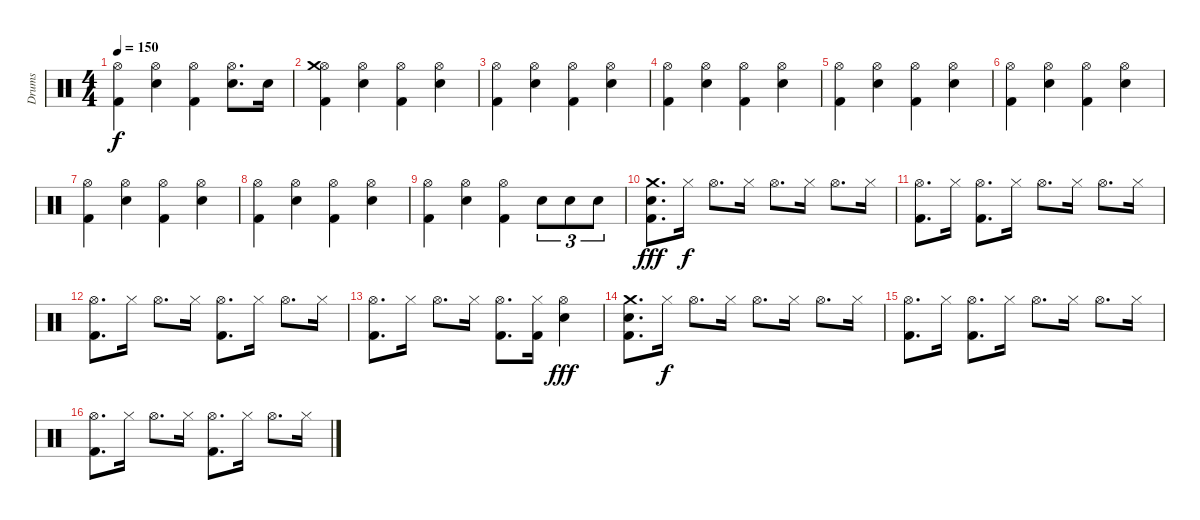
\track ("Drums" "Drums") {instrument percussion}
\staff {score}
\articulation defaults
\ts (4 4)
\tempo 150
\clef neutral
\ks c
("Hi-Hat (open)" "Kick (hit) 2").4{dy f} ("Hi-Hat (open)" "Snare (hit) 2").4 ("Hi-Hat (open)" "Kick (hit) 2").4 ("Hi-Hat (open)" "Snare (hit) 2").8{d} "Snare (hit) 2".16 |
("Hi-Hat (open)" "Crash medium (hit)" "Kick (hit) 2").4 ("Hi-Hat (open)" "Snare (hit) 2").4 ("Hi-Hat (open)" "Kick (hit) 2").4 ("Hi-Hat (open)" "Snare (hit) 2").4 |
("Hi-Hat (open)" "Kick (hit) 2").4 ("Hi-Hat (open)" "Snare (hit) 2").4 ("Hi-Hat (open)" "Kick (hit) 2").4 ("Hi-Hat (open)" "Snare (hit) 2").4 |
("Hi-Hat (open)" "Kick (hit) 2").4 ("Hi-Hat (open)" "Snare (hit) 2").4 ("Hi-Hat (open)" "Kick (hit) 2").4 ("Hi-Hat (open)" "Snare (hit) 2").4 |
("Hi-Hat (open)" "Kick (hit) 2").4 ("Hi-Hat (open)" "Snare (hit) 2").4 ("Hi-Hat (open)" "Kick (hit) 2").4 ("Hi-Hat (open)" "Snare (hit) 2").4 |
("Hi-Hat (open)" "Kick (hit) 2").4 ("Hi-Hat (open)" "Snare (hit) 2").4 ("Hi-Hat (open)" "Kick (hit) 2").4 ("Hi-Hat (open)" "Snare (hit) 2").4 |
("Hi-Hat (open)" "Kick (hit) 2").4 ("Hi-Hat (open)" "Snare (hit) 2").4 ("Hi-Hat (open)" "Kick (hit) 2").4 ("Hi-Hat (open)" "Snare (hit) 2").4 |
("Hi-Hat (open)" "Kick (hit) 2").4 ("Hi-Hat (open)" "Snare (hit) 2").4 ("Hi-Hat (open)" "Kick (hit) 2").4 ("Hi-Hat (open)" "Snare (hit) 2").4 |
("Hi-Hat (open)" "Kick (hit) 2").4 ("Hi-Hat (open)" "Snare (hit) 2").4 ("Hi-Hat (open)" "Kick (hit) 2").4 "Snare (hit) 2".8{tu (3 2)} "Snare (hit) 2".8{tu (3 2)} "Snare (hit) 2".8{tu (3 2)} |
("Crash medium (hit)" "Snare (hit) 2" "Kick (hit) 2").8{d dy fff volume 9} "Hi-Hat (closed)".16{dy f} "Hi-Hat (open)".8{d} "Hi-Hat (closed)".16 "Hi-Hat (open)".8{d} "Hi-Hat (closed)".16 "Hi-Hat (open)".8{d} "Hi-Hat (closed)".16 |
("Hi-Hat (open)" "Kick (hit) 2").8{d volume 9} "Hi-Hat (closed)".16 ("Hi-Hat (open)" "Kick (hit) 2").8{d} "Hi-Hat (closed)".16 "Hi-Hat (open)".8{d} "Hi-Hat (closed)".16 "Hi-Hat (open)".8{d} "Hi-Hat (closed)".16 |
("Hi-Hat (open)" "Kick (hit) 2").8{d volume 9} "Hi-Hat (closed)".16 "Hi-Hat (open)".8{d} "Hi-Hat (closed)".16 ("Hi-Hat (open)" "Kick (hit) 2").8{d} "Hi-Hat (closed)".16 "Hi-Hat (open)".8{d} "Hi-Hat (closed)".16 |
("Hi-Hat (open)" "Kick (hit) 2").8{d volume 9} "Hi-Hat (closed)".16 "Hi-Hat (open)".8{d} "Hi-Hat (closed)".16 ("Hi-Hat (open)" "Kick (hit) 2").8{d} ("Hi-Hat (closed)" "Kick (hit) 2").16 ("Hi-Hat (open)" "Snare (hit) 2").4{dy fff} |
("Crash medium (hit)" "Snare (hit) 2" "Kick (hit) 2").8{d volume 9} "Hi-Hat (closed)".16{dy f} "Hi-Hat (open)".8{d} "Hi-Hat (closed)".16 "Hi-Hat (open)".8{d} "Hi-Hat (closed)".16 "Hi-Hat (open)".8{d} "Hi-Hat (closed)".16 |
("Hi-Hat (open)" "Kick (hit) 2").8{d volume 9} "Hi-Hat (closed)".16 ("Hi-Hat (open)" "Kick (hit) 2").8{d} "Hi-Hat (closed)".16 "Hi-Hat (open)".8{d} "Hi-Hat (closed)".16 "Hi-Hat (open)".8{d} "Hi-Hat (closed)".16 |
("Hi-Hat (open)" "Kick (hit) 2").8{d volume 9} "Hi-Hat (closed)".16 "Hi-Hat (open)".8{d} "Hi-Hat (closed)".16 ("Hi-Hat (open)" "Kick (hit) 2").8{d} "Hi-Hat (closed)".16 "Hi-Hat (open)".8{d} "Hi-Hat (closed)".16
